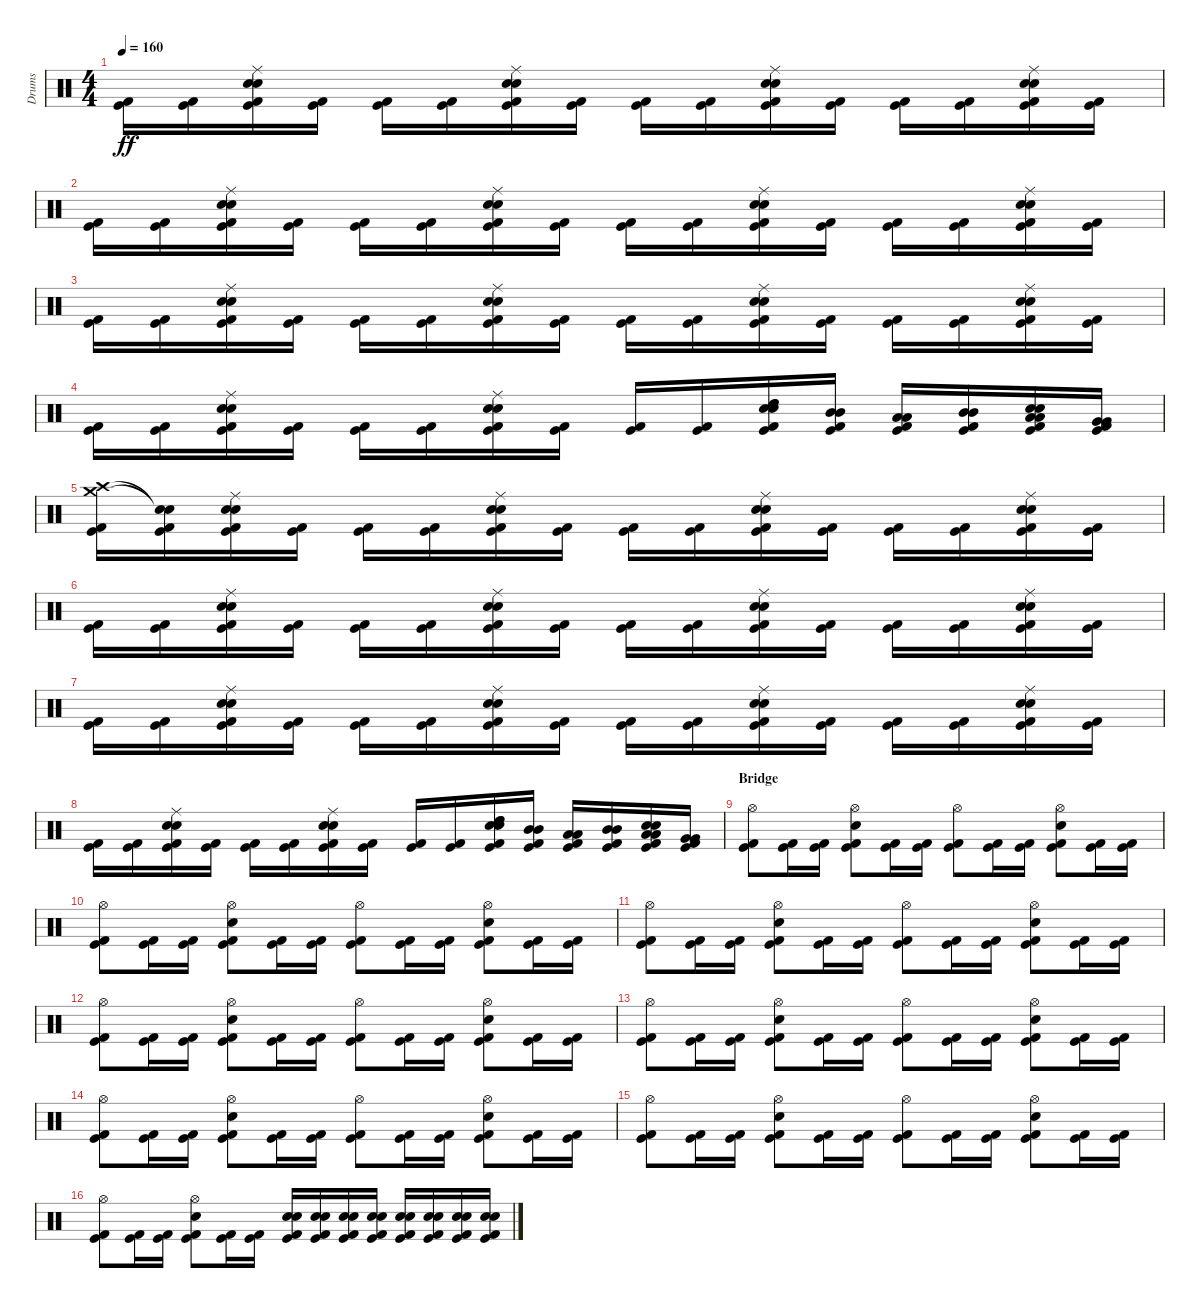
\track ("Drums" "Drums") {instrument percussion}
\staff {score}
\articulation defaults
\ts (4 4)
\tempo 160
\clef neutral
\ks c
("Kick (hit) 2" "Kick (hit)").16{dy ff} ("Kick (hit) 2" "Kick (hit)").16 ("Kick (hit) 2" "Kick (hit)" "Electric Snare (hit)" "Snare (hit) 2" "Ride (middle)").16 ("Kick (hit) 2" "Kick (hit)").16 ("Kick (hit) 2" "Kick (hit)").16 ("Kick (hit) 2" "Kick (hit)").16 ("Kick (hit) 2" "Kick (hit)" "Electric Snare (hit)" "Snare (hit) 2" "Ride (middle)").16 ("Kick (hit) 2" "Kick (hit)").16 ("Kick (hit) 2" "Kick (hit)").16 ("Kick (hit) 2" "Kick (hit)").16 ("Kick (hit) 2" "Kick (hit)" "Electric Snare (hit)" "Snare (hit) 2" "Ride (middle)").16 ("Kick (hit) 2" "Kick (hit)").16 ("Kick (hit) 2" "Kick (hit)").16 ("Kick (hit) 2" "Kick (hit)").16 ("Kick (hit) 2" "Kick (hit)" "Electric Snare (hit)" "Snare (hit) 2" "Ride (middle)").16 ("Kick (hit) 2" "Kick (hit)").16 |
("Kick (hit) 2" "Kick (hit)").16 ("Kick (hit) 2" "Kick (hit)").16 ("Kick (hit) 2" "Kick (hit)" "Electric Snare (hit)" "Snare (hit) 2" "Ride (middle)").16 ("Kick (hit) 2" "Kick (hit)").16 ("Kick (hit) 2" "Kick (hit)").16 ("Kick (hit) 2" "Kick (hit)").16 ("Kick (hit) 2" "Kick (hit)" "Electric Snare (hit)" "Snare (hit) 2" "Ride (middle)").16 ("Kick (hit) 2" "Kick (hit)").16 ("Kick (hit) 2" "Kick (hit)").16 ("Kick (hit) 2" "Kick (hit)").16 ("Kick (hit) 2" "Kick (hit)" "Electric Snare (hit)" "Snare (hit) 2" "Ride (middle)").16 ("Kick (hit) 2" "Kick (hit)").16 ("Kick (hit) 2" "Kick (hit)").16 ("Kick (hit) 2" "Kick (hit)").16 ("Kick (hit) 2" "Kick (hit)" "Electric Snare (hit)" "Snare (hit) 2" "Ride (middle)").16 ("Kick (hit) 2" "Kick (hit)").16 |
("Kick (hit) 2" "Kick (hit)").16 ("Kick (hit) 2" "Kick (hit)").16 ("Kick (hit) 2" "Kick (hit)" "Electric Snare (hit)" "Snare (hit) 2" "Ride (middle)").16 ("Kick (hit) 2" "Kick (hit)").16 ("Kick (hit) 2" "Kick (hit)").16 ("Kick (hit) 2" "Kick (hit)").16 ("Kick (hit) 2" "Kick (hit)" "Electric Snare (hit)" "Snare (hit) 2" "Ride (middle)").16 ("Kick (hit) 2" "Kick (hit)").16 ("Kick (hit) 2" "Kick (hit)").16 ("Kick (hit) 2" "Kick (hit)").16 ("Kick (hit) 2" "Kick (hit)" "Electric Snare (hit)" "Snare (hit) 2" "Ride (middle)").16 ("Kick (hit) 2" "Kick (hit)").16 ("Kick (hit) 2" "Kick (hit)").16 ("Kick (hit) 2" "Kick (hit)").16 ("Kick (hit) 2" "Kick (hit)" "Electric Snare (hit)" "Snare (hit) 2" "Ride (middle)").16 ("Kick (hit) 2" "Kick (hit)").16 |
("Kick (hit) 2" "Kick (hit)").16 ("Kick (hit) 2" "Kick (hit)").16 ("Kick (hit) 2" "Kick (hit)" "Electric Snare (hit)" "Snare (hit) 2" "Ride (middle)").16 ("Kick (hit) 2" "Kick (hit)").16 ("Kick (hit) 2" "Kick (hit)").16 ("Kick (hit) 2" "Kick (hit)").16 ("Kick (hit) 2" "Kick (hit)" "Electric Snare (hit)" "Snare (hit) 2" "Ride (middle)").16 ("Kick (hit) 2" "Kick (hit)").16 ("Kick (hit) 2" "Kick (hit)").16 ("Kick (hit) 2" "Kick (hit)").16 ("Kick (hit) 2" "Kick (hit)" "Electric Snare (hit)" "Snare (hit) 2" "High Tom (hit)" "High Tom (hit)").16 ("Mid Tom (hit)" "Mid Tom (hit)" "Kick (hit) 2" "Kick (hit)").16 ("Low Tom (hit)" "Low Tom (hit)" "Kick (hit) 2" "Kick (hit)").16 ("Mid Tom (hit)" "Mid Tom (hit)" "Kick (hit) 2" "Kick (hit)").16 ("Low Tom (hit)" "Low Tom (hit)" "Electric Snare (hit)" "Snare (hit) 2" "Kick (hit) 2" "Kick (hit)").16 ("Very Low Tom (hit)" "Very Low Tom (hit)" "Kick (hit) 2" "Kick (hit)").16 |
("Kick (hit) 2" "Kick (hit)" "Crash high (hit)" "Crash medium (hit)").16 ("Kick (hit) 2" "Kick (hit)" "Snare (hit)"{t} "Snare (hit)"{t}).16 ("Kick (hit) 2" "Kick (hit)" "Electric Snare (hit)" "Snare (hit) 2" "Ride (middle)").16 ("Kick (hit) 2" "Kick (hit)").16 ("Kick (hit) 2" "Kick (hit)").16 ("Kick (hit) 2" "Kick (hit)").16 ("Kick (hit) 2" "Kick (hit)" "Electric Snare (hit)" "Snare (hit) 2" "Ride (middle)").16 ("Kick (hit) 2" "Kick (hit)").16 ("Kick (hit) 2" "Kick (hit)").16 ("Kick (hit) 2" "Kick (hit)").16 ("Kick (hit) 2" "Kick (hit)" "Electric Snare (hit)" "Snare (hit) 2" "Ride (middle)").16 ("Kick (hit) 2" "Kick (hit)").16 ("Kick (hit) 2" "Kick (hit)").16 ("Kick (hit) 2" "Kick (hit)").16 ("Kick (hit) 2" "Kick (hit)" "Electric Snare (hit)" "Snare (hit) 2" "Ride (middle)").16 ("Kick (hit) 2" "Kick (hit)").16 |
("Kick (hit) 2" "Kick (hit)").16 ("Kick (hit) 2" "Kick (hit)").16 ("Kick (hit) 2" "Kick (hit)" "Electric Snare (hit)" "Snare (hit) 2" "Ride (middle)").16 ("Kick (hit) 2" "Kick (hit)").16 ("Kick (hit) 2" "Kick (hit)").16 ("Kick (hit) 2" "Kick (hit)").16 ("Kick (hit) 2" "Kick (hit)" "Electric Snare (hit)" "Snare (hit) 2" "Ride (middle)").16 ("Kick (hit) 2" "Kick (hit)").16 ("Kick (hit) 2" "Kick (hit)").16 ("Kick (hit) 2" "Kick (hit)").16 ("Kick (hit) 2" "Kick (hit)" "Electric Snare (hit)" "Snare (hit) 2" "Ride (middle)").16 ("Kick (hit) 2" "Kick (hit)").16 ("Kick (hit) 2" "Kick (hit)").16 ("Kick (hit) 2" "Kick (hit)").16 ("Kick (hit) 2" "Kick (hit)" "Electric Snare (hit)" "Snare (hit) 2" "Ride (middle)").16 ("Kick (hit) 2" "Kick (hit)").16 |
("Kick (hit) 2" "Kick (hit)").16 ("Kick (hit) 2" "Kick (hit)").16 ("Kick (hit) 2" "Kick (hit)" "Electric Snare (hit)" "Snare (hit) 2" "Ride (middle)").16 ("Kick (hit) 2" "Kick (hit)").16 ("Kick (hit) 2" "Kick (hit)").16 ("Kick (hit) 2" "Kick (hit)").16 ("Kick (hit) 2" "Kick (hit)" "Electric Snare (hit)" "Snare (hit) 2" "Ride (middle)").16 ("Kick (hit) 2" "Kick (hit)").16 ("Kick (hit) 2" "Kick (hit)").16 ("Kick (hit) 2" "Kick (hit)").16 ("Kick (hit) 2" "Kick (hit)" "Electric Snare (hit)" "Snare (hit) 2" "Ride (middle)").16 ("Kick (hit) 2" "Kick (hit)").16 ("Kick (hit) 2" "Kick (hit)").16 ("Kick (hit) 2" "Kick (hit)").16 ("Kick (hit) 2" "Kick (hit)" "Electric Snare (hit)" "Snare (hit) 2" "Ride (middle)").16 ("Kick (hit) 2" "Kick (hit)").16 |
("Kick (hit) 2" "Kick (hit)").16 ("Kick (hit) 2" "Kick (hit)").16 ("Kick (hit) 2" "Kick (hit)" "Electric Snare (hit)" "Snare (hit) 2" "Ride (middle)").16 ("Kick (hit) 2" "Kick (hit)").16 ("Kick (hit) 2" "Kick (hit)").16 ("Kick (hit) 2" "Kick (hit)").16 ("Kick (hit) 2" "Kick (hit)" "Electric Snare (hit)" "Snare (hit) 2" "Ride (middle)").16 ("Kick (hit) 2" "Kick (hit)").16 ("Kick (hit) 2" "Kick (hit)").16 ("Kick (hit) 2" "Kick (hit)").16 ("Kick (hit) 2" "Kick (hit)" "Electric Snare (hit)" "Snare (hit) 2" "High Tom (hit)" "High Tom (hit)").16 ("Mid Tom (hit)" "Mid Tom (hit)" "Kick (hit) 2" "Kick (hit)").16 ("Low Tom (hit)" "Low Tom (hit)" "Kick (hit) 2" "Kick (hit)").16 ("Mid Tom (hit)" "Mid Tom (hit)" "Kick (hit) 2" "Kick (hit)").16 ("Low Tom (hit)" "Low Tom (hit)" "Electric Snare (hit)" "Snare (hit) 2" "Kick (hit) 2" "Kick (hit)").16 ("Very Low Tom (hit)" "Very Low Tom (hit)" "Kick (hit) 2" "Kick (hit)").16 |
\section ("" "Bridge")
("Kick (hit) 2" "Kick (hit)" "Hi-Hat (open)").8 ("Kick (hit) 2" "Kick (hit)").16 ("Kick (hit) 2" "Kick (hit)").16 ("Kick (hit) 2" "Kick (hit)" "Snare (hit) 2" "Hi-Hat (open)").8 ("Kick (hit) 2" "Kick (hit)").16 ("Kick (hit) 2" "Kick (hit)").16 ("Kick (hit) 2" "Kick (hit)" "Hi-Hat (open)").8 ("Kick (hit) 2" "Kick (hit)").16 ("Kick (hit) 2" "Kick (hit)").16 ("Kick (hit) 2" "Kick (hit)" "Snare (hit) 2" "Hi-Hat (open)").8 ("Kick (hit) 2" "Kick (hit)").16 ("Kick (hit) 2" "Kick (hit)").16 |
("Kick (hit) 2" "Kick (hit)" "Hi-Hat (open)").8 ("Kick (hit) 2" "Kick (hit)").16 ("Kick (hit) 2" "Kick (hit)").16 ("Kick (hit) 2" "Kick (hit)" "Snare (hit) 2" "Hi-Hat (open)").8 ("Kick (hit) 2" "Kick (hit)").16 ("Kick (hit) 2" "Kick (hit)").16 ("Kick (hit) 2" "Kick (hit)" "Hi-Hat (open)").8 ("Kick (hit) 2" "Kick (hit)").16 ("Kick (hit) 2" "Kick (hit)").16 ("Kick (hit) 2" "Kick (hit)" "Snare (hit) 2" "Hi-Hat (open)").8 ("Kick (hit) 2" "Kick (hit)").16 ("Kick (hit) 2" "Kick (hit)").16 |
("Kick (hit) 2" "Kick (hit)" "Hi-Hat (open)").8 ("Kick (hit) 2" "Kick (hit)").16 ("Kick (hit) 2" "Kick (hit)").16 ("Kick (hit) 2" "Kick (hit)" "Snare (hit) 2" "Hi-Hat (open)").8 ("Kick (hit) 2" "Kick (hit)").16 ("Kick (hit) 2" "Kick (hit)").16 ("Kick (hit) 2" "Kick (hit)" "Hi-Hat (open)").8 ("Kick (hit) 2" "Kick (hit)").16 ("Kick (hit) 2" "Kick (hit)").16 ("Kick (hit) 2" "Kick (hit)" "Snare (hit) 2" "Hi-Hat (open)").8 ("Kick (hit) 2" "Kick (hit)").16 ("Kick (hit) 2" "Kick (hit)").16 |
("Kick (hit) 2" "Kick (hit)" "Hi-Hat (open)").8 ("Kick (hit) 2" "Kick (hit)").16 ("Kick (hit) 2" "Kick (hit)").16 ("Kick (hit) 2" "Kick (hit)" "Snare (hit) 2" "Hi-Hat (open)").8 ("Kick (hit) 2" "Kick (hit)").16 ("Kick (hit) 2" "Kick (hit)").16 ("Kick (hit) 2" "Kick (hit)" "Hi-Hat (open)").8 ("Kick (hit) 2" "Kick (hit)").16 ("Kick (hit) 2" "Kick (hit)").16 ("Kick (hit) 2" "Kick (hit)" "Snare (hit) 2" "Hi-Hat (open)").8 ("Kick (hit) 2" "Kick (hit)").16 ("Kick (hit) 2" "Kick (hit)").16 |
("Kick (hit) 2" "Kick (hit)" "Hi-Hat (open)").8 ("Kick (hit) 2" "Kick (hit)").16 ("Kick (hit) 2" "Kick (hit)").16 ("Kick (hit) 2" "Kick (hit)" "Snare (hit) 2" "Hi-Hat (open)").8 ("Kick (hit) 2" "Kick (hit)").16 ("Kick (hit) 2" "Kick (hit)").16 ("Kick (hit) 2" "Kick (hit)" "Hi-Hat (open)").8 ("Kick (hit) 2" "Kick (hit)").16 ("Kick (hit) 2" "Kick (hit)").16 ("Kick (hit) 2" "Kick (hit)" "Snare (hit) 2" "Hi-Hat (open)").8 ("Kick (hit) 2" "Kick (hit)").16 ("Kick (hit) 2" "Kick (hit)").16 |
("Kick (hit) 2" "Kick (hit)" "Hi-Hat (open)").8 ("Kick (hit) 2" "Kick (hit)").16 ("Kick (hit) 2" "Kick (hit)").16 ("Kick (hit) 2" "Kick (hit)" "Snare (hit) 2" "Hi-Hat (open)").8 ("Kick (hit) 2" "Kick (hit)").16 ("Kick (hit) 2" "Kick (hit)").16 ("Kick (hit) 2" "Kick (hit)" "Hi-Hat (open)").8 ("Kick (hit) 2" "Kick (hit)").16 ("Kick (hit) 2" "Kick (hit)").16 ("Kick (hit) 2" "Kick (hit)" "Snare (hit) 2" "Hi-Hat (open)").8 ("Kick (hit) 2" "Kick (hit)").16 ("Kick (hit) 2" "Kick (hit)").16 |
("Kick (hit) 2" "Kick (hit)" "Hi-Hat (open)").8 ("Kick (hit) 2" "Kick (hit)").16 ("Kick (hit) 2" "Kick (hit)").16 ("Kick (hit) 2" "Kick (hit)" "Snare (hit) 2" "Hi-Hat (open)").8 ("Kick (hit) 2" "Kick (hit)").16 ("Kick (hit) 2" "Kick (hit)").16 ("Kick (hit) 2" "Kick (hit)" "Hi-Hat (open)").8 ("Kick (hit) 2" "Kick (hit)").16 ("Kick (hit) 2" "Kick (hit)").16 ("Kick (hit) 2" "Kick (hit)" "Snare (hit) 2" "Hi-Hat (open)").8 ("Kick (hit) 2" "Kick (hit)").16 ("Kick (hit) 2" "Kick (hit)").16 |
("Kick (hit) 2" "Kick (hit)" "Hi-Hat (open)").8 ("Kick (hit) 2" "Kick (hit)").16 ("Kick (hit) 2" "Kick (hit)").16 ("Kick (hit) 2" "Kick (hit)" "Snare (hit) 2" "Hi-Hat (open)").8 ("Kick (hit) 2" "Kick (hit)").16 ("Kick (hit) 2" "Kick (hit)").16 ("Kick (hit) 2" "Kick (hit)" "Snare (hit) 2" "Snare (hit) 2").16 ("Kick (hit) 2" "Kick (hit)" "Snare (hit) 2" "Snare (hit) 2").16 ("Kick (hit) 2" "Kick (hit)" "Snare (hit) 2" "Snare (hit) 2").16 ("Kick (hit) 2" "Kick (hit)" "Snare (hit) 2" "Snare (hit) 2").16 ("Kick (hit) 2" "Kick (hit)" "Snare (hit) 2" "Snare (hit) 2").16 ("Kick (hit) 2" "Kick (hit)" "Snare (hit) 2" "Snare (hit) 2").16 ("Kick (hit) 2" "Kick (hit)" "Snare (hit) 2" "Snare (hit) 2").16 ("Kick (hit) 2" "Kick (hit)" "Snare (hit) 2" "Snare (hit) 2").16
